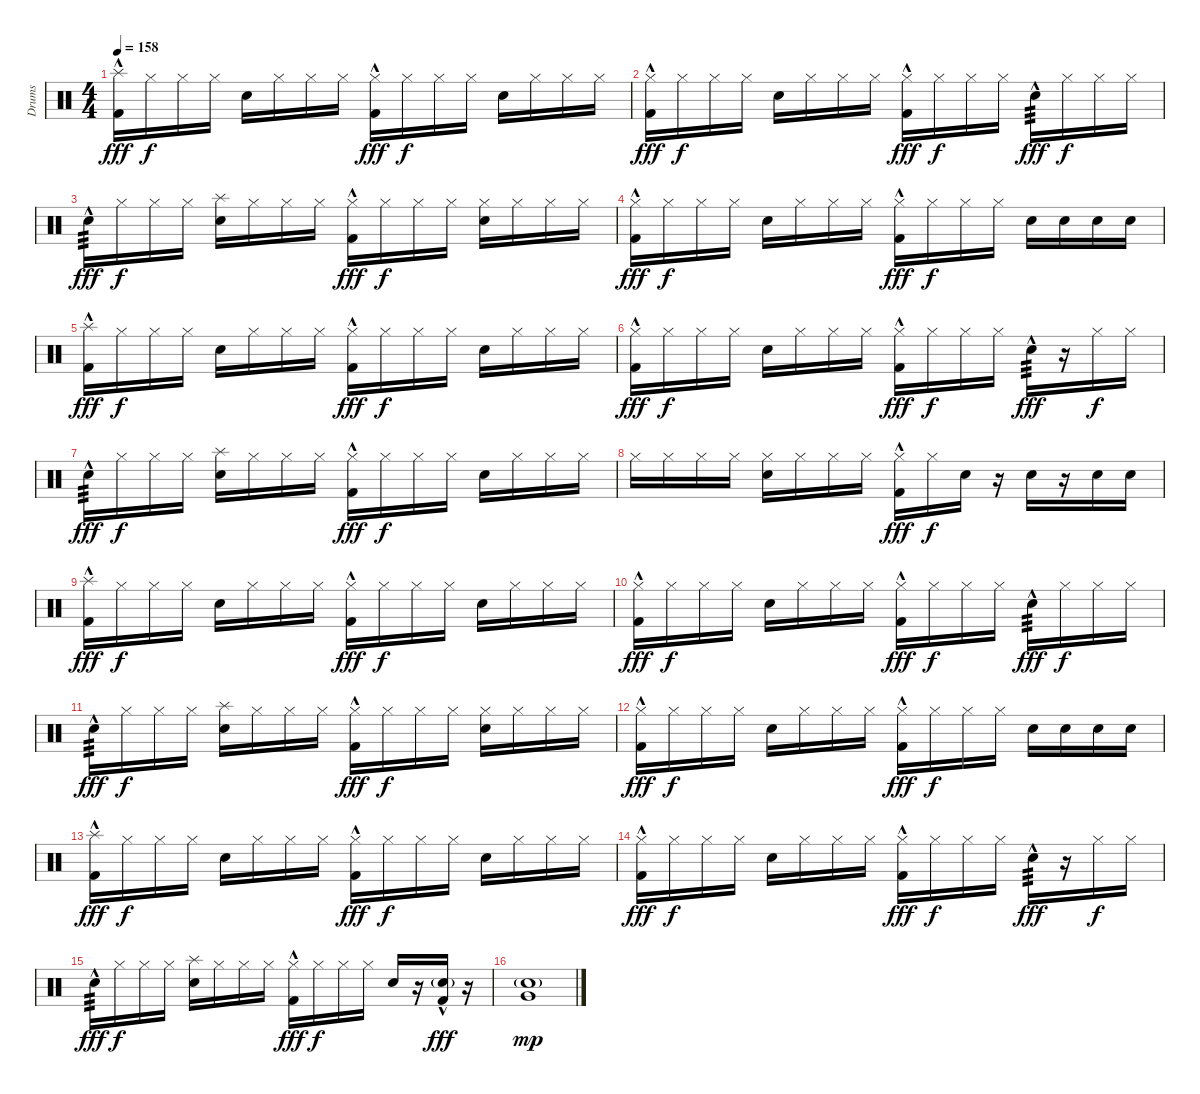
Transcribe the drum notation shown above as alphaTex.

\track ("Drums" "Drums") {instrument percussion}
\staff {score}
\articulation defaults
\ts (4 4)
\tempo 158
\clef neutral
\ks c
("Splash (hit)" "Kick (hit) 2"{hac}).16{dy fff} "Hi-Hat (closed)".16{dy f} "Hi-Hat (closed)".16 "Hi-Hat (closed)".16 "Electric Snare (hit)".16 "Hi-Hat (closed)".16 "Hi-Hat (closed)".16 "Hi-Hat (closed)".16 ("Hi-Hat (closed)" "Kick (hit) 2"{hac}).16{dy fff} "Hi-Hat (closed)".16{dy f} "Hi-Hat (closed)".16 "Hi-Hat (closed)".16 "Electric Snare (hit)".16 "Hi-Hat (closed)".16 "Hi-Hat (closed)".16 "Hi-Hat (closed)".16 |
("Hi-Hat (closed)" "Kick (hit) 2"{hac}).16{dy fff} "Hi-Hat (closed)".16{dy f} "Hi-Hat (closed)".16 "Hi-Hat (closed)".16 "Electric Snare (hit)".16 "Hi-Hat (closed)".16 "Hi-Hat (closed)".16 "Hi-Hat (closed)".16 ("Hi-Hat (closed)" "Kick (hit) 2"{hac}).16{dy fff} "Hi-Hat (closed)".16{dy f} "Hi-Hat (closed)".16 "Hi-Hat (closed)".16 "Electric Snare (hit)"{hac}.16{tp 3 dy fff} "Hi-Hat (closed)".16{dy f} "Hi-Hat (closed)".16 "Hi-Hat (closed)".16 |
"Electric Snare (hit)"{hac}.16{tp 3 dy fff} "Hi-Hat (closed)".16{dy f} "Hi-Hat (closed)".16 "Hi-Hat (closed)".16 ("Splash (hit)" "Electric Snare (hit)").16 "Hi-Hat (closed)".16 "Hi-Hat (closed)".16 "Hi-Hat (closed)".16 ("Hi-Hat (closed)" "Kick (hit) 2"{hac}).16{dy fff} "Hi-Hat (closed)".16{dy f} "Hi-Hat (closed)".16 "Hi-Hat (closed)".16 ("Hi-Hat (closed)" "Electric Snare (hit)").16 "Hi-Hat (closed)".16 "Hi-Hat (closed)".16 "Hi-Hat (closed)".16 |
("Hi-Hat (closed)" "Kick (hit) 2"{hac}).16{dy fff} "Hi-Hat (closed)".16{dy f} "Hi-Hat (closed)".16 "Hi-Hat (closed)".16 "Electric Snare (hit)".16 "Hi-Hat (closed)".16 "Hi-Hat (closed)".16 "Hi-Hat (closed)".16 ("Hi-Hat (closed)" "Kick (hit) 2"{hac}).16{dy fff} "Hi-Hat (closed)".16{dy f} "Hi-Hat (closed)".16 "Hi-Hat (closed)".16 "Electric Snare (hit)".16 "Electric Snare (hit)".16 "Electric Snare (hit)".16 "Electric Snare (hit)".16 |
("Splash (hit)" "Kick (hit) 2"{hac}).16{dy fff} "Hi-Hat (closed)".16{dy f} "Hi-Hat (closed)".16 "Hi-Hat (closed)".16 "Electric Snare (hit)".16 "Hi-Hat (closed)".16 "Hi-Hat (closed)".16 "Hi-Hat (closed)".16 ("Hi-Hat (closed)" "Kick (hit) 2"{hac}).16{dy fff} "Hi-Hat (closed)".16{dy f} "Hi-Hat (closed)".16 "Hi-Hat (closed)".16 "Electric Snare (hit)".16 "Hi-Hat (closed)".16 "Hi-Hat (closed)".16 "Hi-Hat (closed)".16 |
("Hi-Hat (closed)" "Kick (hit) 2"{hac}).16{dy fff} "Hi-Hat (closed)".16{dy f} "Hi-Hat (closed)".16 "Hi-Hat (closed)".16 "Electric Snare (hit)".16 "Hi-Hat (closed)".16 "Hi-Hat (closed)".16 "Hi-Hat (closed)".16 ("Hi-Hat (closed)" "Kick (hit) 2"{hac}).16{dy fff} "Hi-Hat (closed)".16{dy f} "Hi-Hat (closed)".16 "Hi-Hat (closed)".16 "Electric Snare (hit)"{hac}.16{tp 3 dy fff} r.16 "Hi-Hat (closed)".16{dy f} "Hi-Hat (closed)".16 |
"Electric Snare (hit)"{hac}.16{tp 3 dy fff} "Hi-Hat (closed)".16{dy f} "Hi-Hat (closed)".16 "Hi-Hat (closed)".16 ("Splash (hit)" "Electric Snare (hit)").16 "Hi-Hat (closed)".16 "Hi-Hat (closed)".16 "Hi-Hat (closed)".16 ("Hi-Hat (closed)" "Kick (hit) 2"{hac}).16{dy fff} "Hi-Hat (closed)".16{dy f} "Hi-Hat (closed)".16 "Hi-Hat (closed)".16 "Electric Snare (hit)".16 "Hi-Hat (closed)".16 "Hi-Hat (closed)".16 "Hi-Hat (closed)".16 |
"Hi-Hat (closed)".16 "Hi-Hat (closed)".16 "Hi-Hat (closed)".16 "Hi-Hat (closed)".16 ("Hi-Hat (closed)" "Electric Snare (hit)").16 "Hi-Hat (closed)".16 "Hi-Hat (closed)".16 "Hi-Hat (closed)".16 ("Hi-Hat (closed)" "Kick (hit) 2"{hac}).16{dy fff} "Hi-Hat (closed)".16{dy f} "Electric Snare (hit)".16 r.16 "Electric Snare (hit)".16 r.16 "Electric Snare (hit)".16 "Electric Snare (hit)".16 |
("Splash (hit)" "Kick (hit) 2"{hac}).16{dy fff} "Hi-Hat (closed)".16{dy f} "Hi-Hat (closed)".16 "Hi-Hat (closed)".16 "Electric Snare (hit)".16 "Hi-Hat (closed)".16 "Hi-Hat (closed)".16 "Hi-Hat (closed)".16 ("Hi-Hat (closed)" "Kick (hit) 2"{hac}).16{dy fff} "Hi-Hat (closed)".16{dy f} "Hi-Hat (closed)".16 "Hi-Hat (closed)".16 "Electric Snare (hit)".16 "Hi-Hat (closed)".16 "Hi-Hat (closed)".16 "Hi-Hat (closed)".16 |
("Hi-Hat (closed)" "Kick (hit) 2"{hac}).16{dy fff} "Hi-Hat (closed)".16{dy f} "Hi-Hat (closed)".16 "Hi-Hat (closed)".16 "Electric Snare (hit)".16 "Hi-Hat (closed)".16 "Hi-Hat (closed)".16 "Hi-Hat (closed)".16 ("Hi-Hat (closed)" "Kick (hit) 2"{hac}).16{dy fff} "Hi-Hat (closed)".16{dy f} "Hi-Hat (closed)".16 "Hi-Hat (closed)".16 "Electric Snare (hit)"{hac}.16{tp 3 dy fff} "Hi-Hat (closed)".16{dy f} "Hi-Hat (closed)".16 "Hi-Hat (closed)".16 |
"Electric Snare (hit)"{hac}.16{tp 3 dy fff} "Hi-Hat (closed)".16{dy f} "Hi-Hat (closed)".16 "Hi-Hat (closed)".16 ("Splash (hit)" "Electric Snare (hit)").16 "Hi-Hat (closed)".16 "Hi-Hat (closed)".16 "Hi-Hat (closed)".16 ("Hi-Hat (closed)" "Kick (hit) 2"{hac}).16{dy fff} "Hi-Hat (closed)".16{dy f} "Hi-Hat (closed)".16 "Hi-Hat (closed)".16 ("Hi-Hat (closed)" "Electric Snare (hit)").16 "Hi-Hat (closed)".16 "Hi-Hat (closed)".16 "Hi-Hat (closed)".16 |
("Hi-Hat (closed)" "Kick (hit) 2"{hac}).16{dy fff} "Hi-Hat (closed)".16{dy f} "Hi-Hat (closed)".16 "Hi-Hat (closed)".16 "Electric Snare (hit)".16 "Hi-Hat (closed)".16 "Hi-Hat (closed)".16 "Hi-Hat (closed)".16 ("Hi-Hat (closed)" "Kick (hit) 2"{hac}).16{dy fff} "Hi-Hat (closed)".16{dy f} "Hi-Hat (closed)".16 "Hi-Hat (closed)".16 "Electric Snare (hit)".16 "Electric Snare (hit)".16 "Electric Snare (hit)".16 "Electric Snare (hit)".16 |
("Splash (hit)" "Kick (hit) 2"{hac}).16{dy fff} "Hi-Hat (closed)".16{dy f} "Hi-Hat (closed)".16 "Hi-Hat (closed)".16 "Electric Snare (hit)".16 "Hi-Hat (closed)".16 "Hi-Hat (closed)".16 "Hi-Hat (closed)".16 ("Hi-Hat (closed)" "Kick (hit) 2"{hac}).16{dy fff} "Hi-Hat (closed)".16{dy f} "Hi-Hat (closed)".16 "Hi-Hat (closed)".16 "Electric Snare (hit)".16 "Hi-Hat (closed)".16 "Hi-Hat (closed)".16 "Hi-Hat (closed)".16 |
("Hi-Hat (closed)" "Kick (hit) 2"{hac}).16{dy fff} "Hi-Hat (closed)".16{dy f} "Hi-Hat (closed)".16 "Hi-Hat (closed)".16 "Electric Snare (hit)".16 "Hi-Hat (closed)".16 "Hi-Hat (closed)".16 "Hi-Hat (closed)".16 ("Hi-Hat (closed)" "Kick (hit) 2"{hac}).16{dy fff} "Hi-Hat (closed)".16{dy f} "Hi-Hat (closed)".16 "Hi-Hat (closed)".16 "Electric Snare (hit)"{hac}.16{tp 3 dy fff} r.16 "Hi-Hat (closed)".16{dy f} "Hi-Hat (closed)".16 |
"Electric Snare (hit)"{hac}.16{tp 3 dy fff} "Hi-Hat (closed)".16{dy f} "Hi-Hat (closed)".16 "Hi-Hat (closed)".16 ("Splash (hit)" "Electric Snare (hit)").16 "Hi-Hat (closed)".16 "Hi-Hat (closed)".16 "Hi-Hat (closed)".16 ("Hi-Hat (closed)" "Kick (hit) 2"{hac}).16{dy fff} "Hi-Hat (closed)".16{dy f} "Hi-Hat (closed)".16 "Hi-Hat (closed)".16 "Electric Snare (hit)".16 r.16 ("Electric Snare (hit)"{g} "Kick (hit) 2"{hac}).16{dy fff} r.16 |
("Electric Snare (hit)"{g} "Very Low Tom (hit)").1{dy mp}
